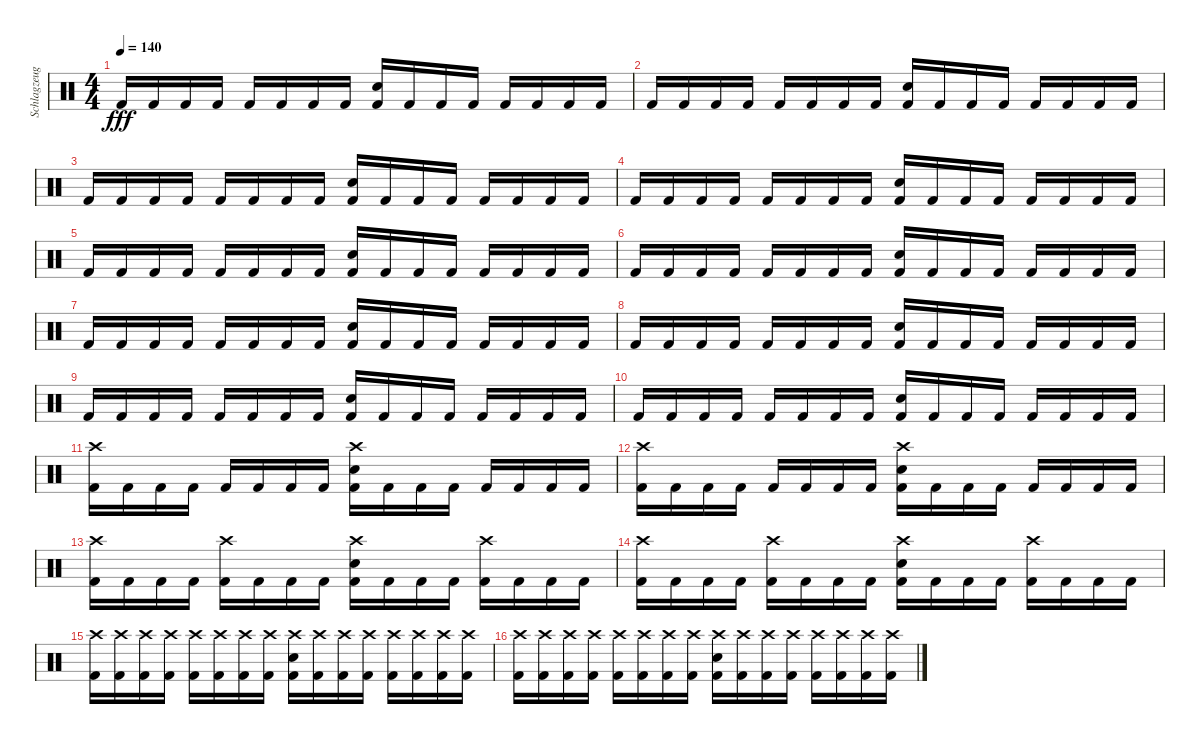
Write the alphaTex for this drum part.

\track ("Schlagzeug" "Schlagzeug") {instrument percussion}
\staff {score}
\articulation defaults
\ts (4 4)
\tempo 140
\clef neutral
\ks c "Kick (hit) 2".16{dy fff} "Kick (hit) 2".16 "Kick (hit) 2".16 "Kick (hit) 2".16 "Kick (hit) 2".16 "Kick (hit) 2".16 "Kick (hit) 2".16 "Kick (hit) 2".16
("Kick (hit) 2" "Electric Snare (hit)").16 "Kick (hit) 2".16 "Kick (hit) 2".16 "Kick (hit) 2".16 "Kick (hit) 2".16 "Kick (hit) 2".16 "Kick (hit) 2".16 "Kick (hit) 2".16 |
"Kick (hit) 2".16 "Kick (hit) 2".16 "Kick (hit) 2".16 "Kick (hit) 2".16 "Kick (hit) 2".16 "Kick (hit) 2".16 "Kick (hit) 2".16 "Kick (hit) 2".16 ("Kick (hit) 2" "Electric Snare (hit)").16 "Kick (hit) 2".16 "Kick (hit) 2".16 "Kick (hit) 2".16 "Kick (hit) 2".16 "Kick (hit) 2".16 "Kick (hit) 2".16 "Kick (hit) 2".16 |
"Kick (hit) 2".16 "Kick (hit) 2".16 "Kick (hit) 2".16 "Kick (hit) 2".16 "Kick (hit) 2".16 "Kick (hit) 2".16 "Kick (hit) 2".16 "Kick (hit) 2".16 ("Kick (hit) 2" "Electric Snare (hit)").16 "Kick (hit) 2".16 "Kick (hit) 2".16 "Kick (hit) 2".16 "Kick (hit) 2".16 "Kick (hit) 2".16 "Kick (hit) 2".16 "Kick (hit) 2".16 |
"Kick (hit) 2".16 "Kick (hit) 2".16 "Kick (hit) 2".16 "Kick (hit) 2".16 "Kick (hit) 2".16 "Kick (hit) 2".16 "Kick (hit) 2".16 "Kick (hit) 2".16 ("Kick (hit) 2" "Electric Snare (hit)").16 "Kick (hit) 2".16 "Kick (hit) 2".16 "Kick (hit) 2".16 "Kick (hit) 2".16 "Kick (hit) 2".16 "Kick (hit) 2".16 "Kick (hit) 2".16 |
"Kick (hit) 2".16 "Kick (hit) 2".16 "Kick (hit) 2".16 "Kick (hit) 2".16 "Kick (hit) 2".16 "Kick (hit) 2".16 "Kick (hit) 2".16 "Kick (hit) 2".16 ("Kick (hit) 2" "Electric Snare (hit)").16 "Kick (hit) 2".16 "Kick (hit) 2".16 "Kick (hit) 2".16 "Kick (hit) 2".16 "Kick (hit) 2".16 "Kick (hit) 2".16 "Kick (hit) 2".16 |
"Kick (hit) 2".16 "Kick (hit) 2".16 "Kick (hit) 2".16 "Kick (hit) 2".16 "Kick (hit) 2".16 "Kick (hit) 2".16 "Kick (hit) 2".16 "Kick (hit) 2".16 ("Kick (hit) 2" "Electric Snare (hit)").16 "Kick (hit) 2".16 "Kick (hit) 2".16 "Kick (hit) 2".16 "Kick (hit) 2".16 "Kick (hit) 2".16 "Kick (hit) 2".16 "Kick (hit) 2".16 |
"Kick (hit) 2".16 "Kick (hit) 2".16 "Kick (hit) 2".16 "Kick (hit) 2".16 "Kick (hit) 2".16 "Kick (hit) 2".16 "Kick (hit) 2".16 "Kick (hit) 2".16 ("Kick (hit) 2" "Electric Snare (hit)").16 "Kick (hit) 2".16 "Kick (hit) 2".16 "Kick (hit) 2".16 "Kick (hit) 2".16 "Kick (hit) 2".16 "Kick (hit) 2".16 "Kick (hit) 2".16 |
"Kick (hit) 2".16 "Kick (hit) 2".16 "Kick (hit) 2".16 "Kick (hit) 2".16 "Kick (hit) 2".16 "Kick (hit) 2".16 "Kick (hit) 2".16 "Kick (hit) 2".16 ("Kick (hit) 2" "Electric Snare (hit)").16 "Kick (hit) 2".16 "Kick (hit) 2".16 "Kick (hit) 2".16 "Kick (hit) 2".16 "Kick (hit) 2".16 "Kick (hit) 2".16 "Kick (hit) 2".16 |
"Kick (hit) 2".16 "Kick (hit) 2".16 "Kick (hit) 2".16 "Kick (hit) 2".16 "Kick (hit) 2".16 "Kick (hit) 2".16 "Kick (hit) 2".16 "Kick (hit) 2".16 ("Kick (hit) 2" "Electric Snare (hit)").16 "Kick (hit) 2".16 "Kick (hit) 2".16 "Kick (hit) 2".16 "Kick (hit) 2".16 "Kick (hit) 2".16 "Kick (hit) 2".16 "Kick (hit) 2".16 |
"Kick (hit) 2".16 "Kick (hit) 2".16 "Kick (hit) 2".16 "Kick (hit) 2".16 "Kick (hit) 2".16 "Kick (hit) 2".16 "Kick (hit) 2".16 "Kick (hit) 2".16 ("Kick (hit) 2" "Electric Snare (hit)").16 "Kick (hit) 2".16 "Kick (hit) 2".16 "Kick (hit) 2".16 "Kick (hit) 2".16 "Kick (hit) 2".16 "Kick (hit) 2".16 "Kick (hit) 2".16 |
("Kick (hit) 2" "Crash high (hit)").16 "Kick (hit) 2".16 "Kick (hit) 2".16 "Kick (hit) 2".16 "Kick (hit) 2".16 "Kick (hit) 2".16 "Kick (hit) 2".16 "Kick (hit) 2".16 ("Kick (hit) 2" "Electric Snare (hit)" "Crash high (hit)").16 "Kick (hit) 2".16 "Kick (hit) 2".16 "Kick (hit) 2".16 "Kick (hit) 2".16 "Kick (hit) 2".16 "Kick (hit) 2".16 "Kick (hit) 2".16 |
("Kick (hit) 2" "Crash high (hit)").16 "Kick (hit) 2".16 "Kick (hit) 2".16 "Kick (hit) 2".16 "Kick (hit) 2".16 "Kick (hit) 2".16 "Kick (hit) 2".16 "Kick (hit) 2".16 ("Kick (hit) 2" "Electric Snare (hit)" "Crash high (hit)").16 "Kick (hit) 2".16 "Kick (hit) 2".16 "Kick (hit) 2".16 "Kick (hit) 2".16 "Kick (hit) 2".16 "Kick (hit) 2".16 "Kick (hit) 2".16 |
("Kick (hit) 2" "Crash high (hit)").16 "Kick (hit) 2".16 "Kick (hit) 2".16 "Kick (hit) 2".16 ("Kick (hit) 2" "Crash high (hit)").16 "Kick (hit) 2".16 "Kick (hit) 2".16 "Kick (hit) 2".16 ("Kick (hit) 2" "Electric Snare (hit)" "Crash high (hit)").16 "Kick (hit) 2".16 "Kick (hit) 2".16 "Kick (hit) 2".16 ("Kick (hit) 2" "Crash high (hit)").16 "Kick (hit) 2".16 "Kick (hit) 2".16 "Kick (hit) 2".16 |
("Kick (hit) 2" "Crash high (hit)").16 "Kick (hit) 2".16 "Kick (hit) 2".16 "Kick (hit) 2".16 ("Kick (hit) 2" "Crash high (hit)").16 "Kick (hit) 2".16 "Kick (hit) 2".16 "Kick (hit) 2".16 ("Kick (hit) 2" "Electric Snare (hit)" "Crash high (hit)").16 "Kick (hit) 2".16 "Kick (hit) 2".16 "Kick (hit) 2".16 ("Kick (hit) 2" "Crash high (hit)").16 "Kick (hit) 2".16 "Kick (hit) 2".16 "Kick (hit) 2".16 |
("Kick (hit) 2" "Crash high (hit)").16 ("Kick (hit) 2" "Crash high (hit)").16 ("Kick (hit) 2" "Crash high (hit)").16 ("Kick (hit) 2" "Crash high (hit)").16 ("Kick (hit) 2" "Crash high (hit)").16 ("Kick (hit) 2" "Crash high (hit)").16 ("Kick (hit) 2" "Crash high (hit)").16 ("Kick (hit) 2" "Crash high (hit)").16 ("Kick (hit) 2" "Electric Snare (hit)" "Crash high (hit)").16 ("Kick (hit) 2" "Crash high (hit)").16 ("Kick (hit) 2" "Crash high (hit)").16 ("Kick (hit) 2" "Crash high (hit)").16 ("Kick (hit) 2" "Crash high (hit)").16 ("Kick (hit) 2" "Crash high (hit)").16 ("Kick (hit) 2" "Crash high (hit)").16 ("Kick (hit) 2" "Crash high (hit)").16 |
("Kick (hit) 2" "Crash high (hit)").16 ("Kick (hit) 2" "Crash high (hit)").16 ("Kick (hit) 2" "Crash high (hit)").16 ("Kick (hit) 2" "Crash high (hit)").16 ("Kick (hit) 2" "Crash high (hit)").16 ("Kick (hit) 2" "Crash high (hit)").16 ("Kick (hit) 2" "Crash high (hit)").16 ("Kick (hit) 2" "Crash high (hit)").16 ("Kick (hit) 2" "Electric Snare (hit)" "Crash high (hit)").16 ("Kick (hit) 2" "Crash high (hit)").16 ("Kick (hit) 2" "Crash high (hit)").16 ("Kick (hit) 2" "Crash high (hit)").16 ("Kick (hit) 2" "Crash high (hit)").16 ("Kick (hit) 2" "Crash high (hit)").16 ("Kick (hit) 2" "Crash high (hit)").16 ("Kick (hit) 2" "Crash high (hit)").16
